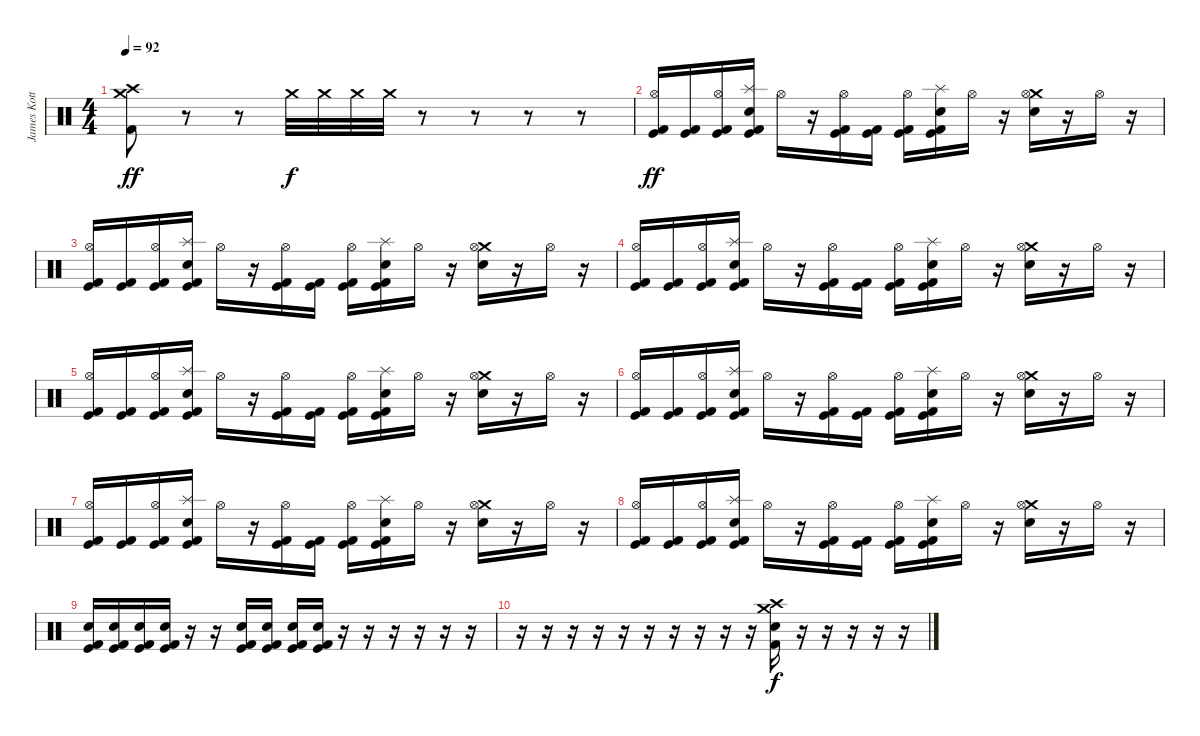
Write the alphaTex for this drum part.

\track ("James Kottak" "James Kott") {instrument percussion}
\staff {score}
\articulation defaults
\ts (4 4)
\tempo 92
\clef neutral
\ks c
("Crash high (hit)" "Crash medium (hit)" "Kick (hit) 2").8{dy ff} r.8 r.8 "Crash medium (hit)".32{dy f} "Crash medium (hit)".32 "Crash medium (hit)".32 "Crash medium (hit)".32 r.8 r.8 r.8 r.8 |
("Hi-Hat (open)" "Kick (hit) 2" "Kick (hit)").16{dy ff} ("Kick (hit) 2" "Kick (hit)").16 ("Hi-Hat (open)" "Kick (hit)" "Kick (hit) 2").16 ("Splash (hit)" "Electric Snare (hit)" "Kick (hit) 2" "Kick (hit)").16 "Hi-Hat (open)".16 r.16 ("Hi-Hat (open)" "Kick (hit) 2" "Kick (hit)").16 ("Kick (hit) 2" "Kick (hit)").16 ("Hi-Hat (open)" "Kick (hit) 2" "Kick (hit)").16 ("Splash (hit)" "Electric Snare (hit)" "Kick (hit) 2" "Kick (hit)").16 "Hi-Hat (open)".16 r.16 ("Crash medium (hit)" "Hi-Hat (open)" "Electric Snare (hit)").16 r.16 "Hi-Hat (open)".16 r.16 |
("Hi-Hat (open)" "Kick (hit) 2" "Kick (hit)").16 ("Kick (hit) 2" "Kick (hit)").16 ("Hi-Hat (open)" "Kick (hit)" "Kick (hit) 2").16 ("Splash (hit)" "Electric Snare (hit)" "Kick (hit) 2" "Kick (hit)").16 "Hi-Hat (open)".16 r.16 ("Hi-Hat (open)" "Kick (hit) 2" "Kick (hit)").16 ("Kick (hit) 2" "Kick (hit)").16 ("Hi-Hat (open)" "Kick (hit) 2" "Kick (hit)").16 ("Splash (hit)" "Electric Snare (hit)" "Kick (hit) 2" "Kick (hit)").16 "Hi-Hat (open)".16 r.16 ("Crash medium (hit)" "Hi-Hat (open)" "Electric Snare (hit)").16 r.16 "Hi-Hat (open)".16 r.16 |
("Hi-Hat (open)" "Kick (hit) 2" "Kick (hit)").16 ("Kick (hit) 2" "Kick (hit)").16 ("Hi-Hat (open)" "Kick (hit)" "Kick (hit) 2").16 ("Splash (hit)" "Electric Snare (hit)" "Kick (hit) 2" "Kick (hit)").16 "Hi-Hat (open)".16 r.16 ("Hi-Hat (open)" "Kick (hit) 2" "Kick (hit)").16 ("Kick (hit) 2" "Kick (hit)").16 ("Hi-Hat (open)" "Kick (hit) 2" "Kick (hit)").16 ("Splash (hit)" "Electric Snare (hit)" "Kick (hit) 2" "Kick (hit)").16 "Hi-Hat (open)".16 r.16 ("Crash medium (hit)" "Hi-Hat (open)" "Electric Snare (hit)").16 r.16 "Hi-Hat (open)".16 r.16 |
("Hi-Hat (open)" "Kick (hit) 2" "Kick (hit)").16 ("Kick (hit) 2" "Kick (hit)").16 ("Hi-Hat (open)" "Kick (hit)" "Kick (hit) 2").16 ("Splash (hit)" "Electric Snare (hit)" "Kick (hit) 2" "Kick (hit)").16 "Hi-Hat (open)".16 r.16 ("Hi-Hat (open)" "Kick (hit) 2" "Kick (hit)").16 ("Kick (hit) 2" "Kick (hit)").16 ("Hi-Hat (open)" "Kick (hit) 2" "Kick (hit)").16 ("Splash (hit)" "Electric Snare (hit)" "Kick (hit) 2" "Kick (hit)").16 "Hi-Hat (open)".16 r.16 ("Crash medium (hit)" "Hi-Hat (open)" "Electric Snare (hit)").16 r.16 "Hi-Hat (open)".16 r.16 |
("Hi-Hat (open)" "Kick (hit) 2" "Kick (hit)").16 ("Kick (hit) 2" "Kick (hit)").16 ("Hi-Hat (open)" "Kick (hit)" "Kick (hit) 2").16 ("Splash (hit)" "Electric Snare (hit)" "Kick (hit) 2" "Kick (hit)").16 "Hi-Hat (open)".16 r.16 ("Hi-Hat (open)" "Kick (hit) 2" "Kick (hit)").16 ("Kick (hit) 2" "Kick (hit)").16 ("Hi-Hat (open)" "Kick (hit) 2" "Kick (hit)").16 ("Splash (hit)" "Electric Snare (hit)" "Kick (hit) 2" "Kick (hit)").16 "Hi-Hat (open)".16 r.16 ("Crash medium (hit)" "Hi-Hat (open)" "Electric Snare (hit)").16 r.16 "Hi-Hat (open)".16 r.16 |
("Hi-Hat (open)" "Kick (hit) 2" "Kick (hit)").16 ("Kick (hit) 2" "Kick (hit)").16 ("Hi-Hat (open)" "Kick (hit)" "Kick (hit) 2").16 ("Splash (hit)" "Electric Snare (hit)" "Kick (hit) 2" "Kick (hit)").16 "Hi-Hat (open)".16 r.16 ("Hi-Hat (open)" "Kick (hit) 2" "Kick (hit)").16 ("Kick (hit) 2" "Kick (hit)").16 ("Hi-Hat (open)" "Kick (hit) 2" "Kick (hit)").16 ("Splash (hit)" "Electric Snare (hit)" "Kick (hit) 2" "Kick (hit)").16 "Hi-Hat (open)".16 r.16 ("Crash medium (hit)" "Hi-Hat (open)" "Electric Snare (hit)").16 r.16 "Hi-Hat (open)".16 r.16 |
("Hi-Hat (open)" "Kick (hit) 2" "Kick (hit)").16 ("Kick (hit) 2" "Kick (hit)").16 ("Hi-Hat (open)" "Kick (hit)" "Kick (hit) 2").16 ("Splash (hit)" "Electric Snare (hit)" "Kick (hit) 2" "Kick (hit)").16 "Hi-Hat (open)".16 r.16 ("Hi-Hat (open)" "Kick (hit) 2" "Kick (hit)").16 ("Kick (hit) 2" "Kick (hit)").16 ("Hi-Hat (open)" "Kick (hit) 2" "Kick (hit)").16 ("Splash (hit)" "Electric Snare (hit)" "Kick (hit) 2" "Kick (hit)").16 "Hi-Hat (open)".16 r.16 ("Crash medium (hit)" "Hi-Hat (open)" "Electric Snare (hit)").16 r.16 "Hi-Hat (open)".16 r.16 |
("Electric Snare (hit)" "Kick (hit) 2" "Kick (hit)").16 ("Electric Snare (hit)" "Kick (hit) 2" "Kick (hit)").16 ("Electric Snare (hit)" "Kick (hit)" "Kick (hit) 2").16 ("Electric Snare (hit)" "Kick (hit) 2" "Kick (hit)").16 r.16 r.16 ("Electric Snare (hit)" "Kick (hit) 2" "Kick (hit)").16 ("Electric Snare (hit)" "Kick (hit) 2" "Kick (hit)").16 ("Electric Snare (hit)" "Kick (hit) 2" "Kick (hit)").16 ("Electric Snare (hit)" "Kick (hit) 2" "Kick (hit)").16 r.16 r.16 r.16 r.16 r.16 r.16 |
r.16 r.16 r.16 r.16 r.16 r.16 r.16 r.16 r.16 r.16 ("Crash high (hit)" "Crash medium (hit)" "Electric Snare (hit)" "Kick (hit) 2").16{dy f} r.16 r.16 r.16 r.16 r.16
